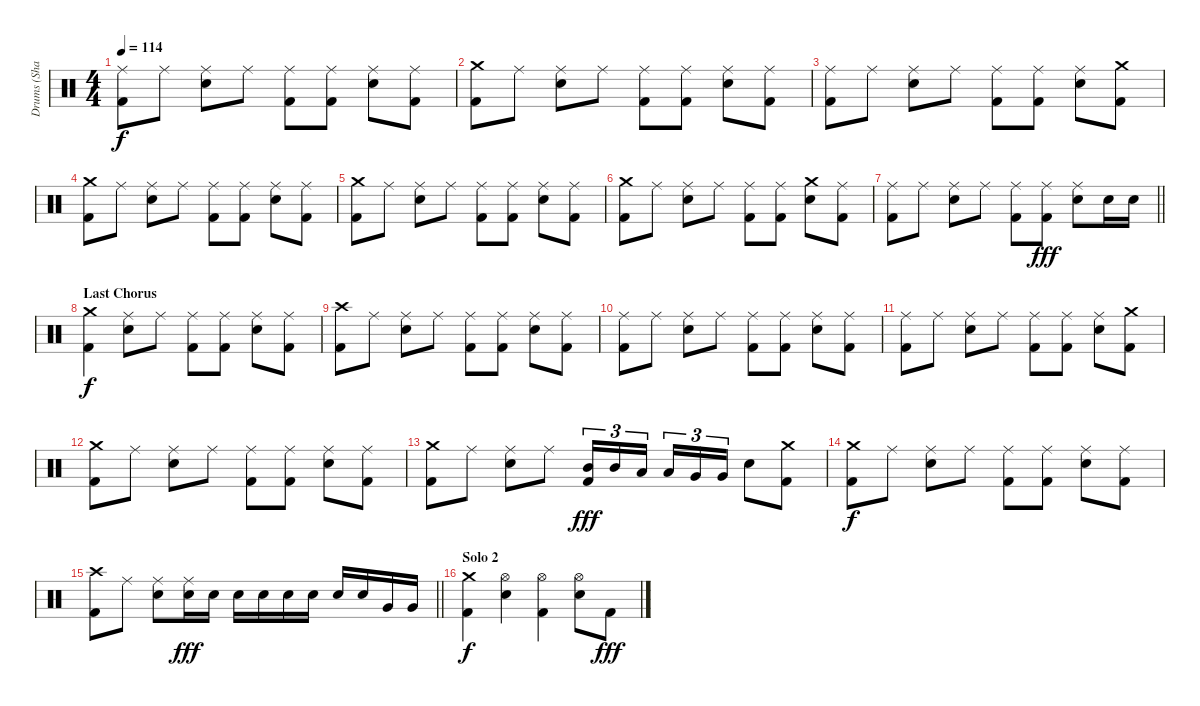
\track ("Drums (Shawn)" "Drums (Sha") {instrument percussion}
\staff {score}
\articulation defaults
\ts (4 4)
\tempo 114
\clef neutral
\ks c
("Ride (middle)" "Kick (hit) 2").8{dy f} "Ride (middle)".8 ("Ride (middle)" "Snare (hit) 2").8 "Ride (middle)".8 ("Ride (middle)" "Kick (hit) 2").8 ("Ride (middle)" "Kick (hit) 2").8 ("Ride (middle)" "Snare (hit) 2").8 ("Ride (middle)" "Kick (hit) 2").8 |
("Crash medium (hit)" "Kick (hit) 2").8 "Ride (middle)".8 ("Ride (middle)" "Snare (hit) 2").8 "Ride (middle)".8 ("Ride (middle)" "Kick (hit) 2").8 ("Ride (middle)" "Kick (hit) 2").8 ("Ride (middle)" "Snare (hit) 2").8 ("Ride (middle)" "Kick (hit) 2").8 |
("Ride (middle)" "Kick (hit) 2").8 "Ride (middle)".8 ("Ride (middle)" "Snare (hit) 2").8 "Ride (middle)".8 ("Ride (middle)" "Kick (hit) 2").8 ("Ride (middle)" "Kick (hit) 2").8 ("Ride (middle)" "Snare (hit) 2").8 ("Crash medium (hit)" "Kick (hit) 2").8 |
("Crash medium (hit)" "Kick (hit) 2").8 "Ride (middle)".8 ("Ride (middle)" "Snare (hit) 2").8 "Ride (middle)".8 ("Ride (middle)" "Kick (hit) 2").8 ("Ride (middle)" "Kick (hit) 2").8 ("Ride (middle)" "Snare (hit) 2").8 ("Ride (middle)" "Kick (hit) 2").8 |
("Crash medium (hit)" "Kick (hit) 2").8 "Ride (middle)".8 ("Ride (middle)" "Snare (hit) 2").8 "Ride (middle)".8 ("Ride (middle)" "Kick (hit) 2").8 ("Ride (middle)" "Kick (hit) 2").8 ("Ride (middle)" "Snare (hit) 2").8 ("Ride (middle)" "Kick (hit) 2").8 |
("Crash medium (hit)" "Kick (hit) 2").8 "Ride (middle)".8 ("Ride (middle)" "Snare (hit) 2").8 "Ride (middle)".8 ("Ride (middle)" "Kick (hit) 2").8 ("Ride (middle)" "Kick (hit) 2").8 ("Crash medium (hit)" "Snare (hit) 2").8 ("Ride (middle)" "Kick (hit) 2").8 |
\barLineRight lightlight
("Ride (middle)" "Kick (hit) 2").8 "Ride (middle)".8 ("Ride (middle)" "Snare (hit) 2").8 "Ride (middle)".8 ("Ride (middle)" "Kick (hit) 2").8 ("Ride (middle)" "Kick (hit) 2").8{dy fff} ("Ride (middle)" "Snare (hit) 2").8 "Snare (hit) 2".16 "Snare (hit) 2".16 |
\section ("" "Last Chorus")
("Crash medium (hit)" "Kick (hit) 2").4{dy f} ("Ride (middle)" "Snare (hit) 2").8 "Ride (middle)".8 ("Ride (middle)" "Kick (hit) 2").8 ("Ride (middle)" "Kick (hit) 2").8 ("Ride (middle)" "Snare (hit) 2").8 ("Ride (middle)" "Kick (hit) 2").8 |
("Crash high (hit)" "Kick (hit) 2").8 "Ride (middle)".8 ("Ride (middle)" "Snare (hit) 2").8 "Ride (middle)".8 ("Ride (middle)" "Kick (hit) 2").8 ("Ride (middle)" "Kick (hit) 2").8 ("Ride (middle)" "Snare (hit) 2").8 ("Ride (middle)" "Kick (hit) 2").8 |
("Ride (middle)" "Kick (hit) 2").8 "Ride (middle)".8 ("Ride (middle)" "Snare (hit) 2").8 "Ride (middle)".8 ("Ride (middle)" "Kick (hit) 2").8 ("Ride (middle)" "Kick (hit) 2").8 ("Ride (middle)" "Snare (hit) 2").8 ("Ride (middle)" "Kick (hit) 2").8 |
("Ride (middle)" "Kick (hit) 2").8 "Ride (middle)".8 ("Ride (middle)" "Snare (hit) 2").8 "Ride (middle)".8 ("Ride (middle)" "Kick (hit) 2").8 ("Ride (middle)" "Kick (hit) 2").8 ("Ride (middle)" "Snare (hit) 2").8 ("Crash medium (hit)" "Kick (hit) 2").8 |
("Crash medium (hit)" "Kick (hit) 2").8 "Ride (middle)".8 ("Ride (middle)" "Snare (hit) 2").8 "Ride (middle)".8 ("Ride (middle)" "Kick (hit) 2").8 ("Ride (middle)" "Kick (hit) 2").8 ("Ride (middle)" "Snare (hit) 2").8 ("Ride (middle)" "Kick (hit) 2").8 |
("Crash medium (hit)" "Kick (hit) 2").8 "Ride (middle)".8 ("Ride (middle)" "Snare (hit) 2").8 "Ride (middle)".8 ("Mid Tom (hit)" "Kick (hit) 2").16{tu (3 2) dy fff} "Mid Tom (hit)".16{tu (3 2)} "Low Tom (hit)".16{tu (3 2) beam splitsecondary} "Low Tom (hit)".16{tu (3 2)} "Very Low Tom (hit)".16{tu (3 2)} "Very Low Tom (hit)".16{tu (3 2)} "Snare (hit) 2".8 ("Crash medium (hit)" "Kick (hit) 2").8 |
("Crash medium (hit)" "Kick (hit) 2").8{dy f} "Ride (middle)".8 ("Ride (middle)" "Snare (hit) 2").8 "Ride (middle)".8 ("Ride (middle)" "Kick (hit) 2").8 ("Ride (middle)" "Kick (hit) 2").8 ("Ride (middle)" "Snare (hit) 2").8 ("Ride (middle)" "Kick (hit) 2").8 |
\barLineRight lightlight
("Crash high (hit)" "Kick (hit) 2").8 "Ride (middle)".8 ("Ride (middle)" "Snare (hit) 2").8 ("Ride (middle)" "Snare (hit) 2").16{dy fff} "Snare (hit) 2".16 "Snare (hit) 2".16 "Snare (hit) 2".16 "Snare (hit) 2".16 "Snare (hit) 2".16 "Snare (hit) 2".16 "Snare (hit) 2".16 "Very Low Tom (hit)".16 "Very Low Tom (hit)".16 |
\section ("" "Solo 2")
("Crash medium (hit)" "Kick (hit) 2").4{dy f} ("Hi-Hat (open)" "Snare (hit) 2").4 ("Hi-Hat (open)" "Kick (hit) 2").4 ("Hi-Hat (open)" "Snare (hit) 2").8 "Kick (hit) 2".8{dy fff}
